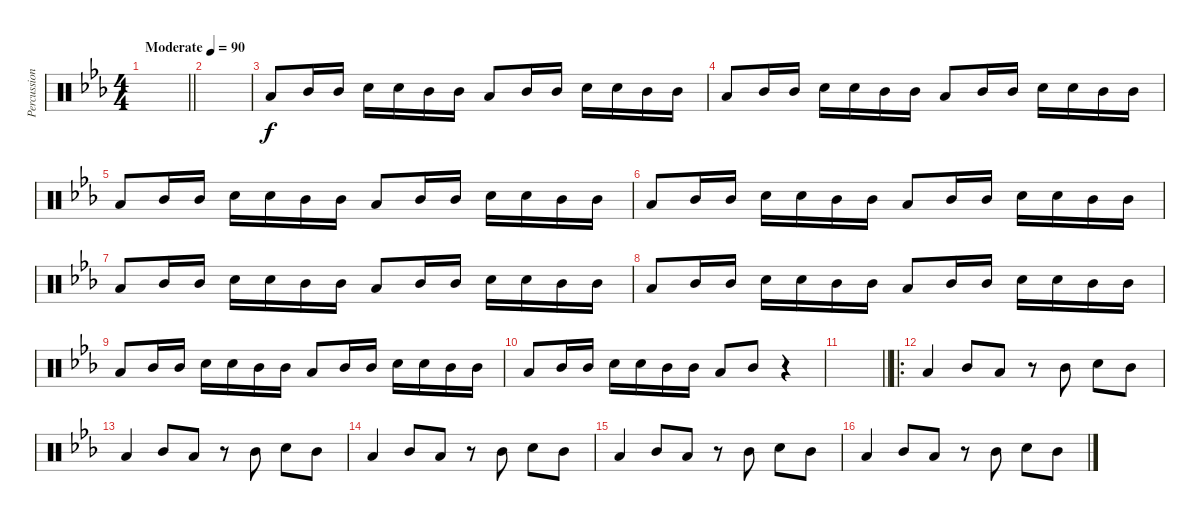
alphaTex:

\track ("Percussion" "Percussion") {instrument percussion}
\staff {score}
\articulation defaults
\ts (4 4)
\tempo (90 "Moderate")
\clef neutral
\barLineRight lightlight
\ks eb
|
|
"Low Floor Tom (hit)".8 "Mid Tom (hit)".16 "Mid Tom (hit)".16 "Snare (hit) 2".16 "Snare (hit) 2".16 "Mid Tom (hit)".16 "Mid Tom (hit)".16 "Low Floor Tom (hit)".8 "Mid Tom (hit)".16 "Mid Tom (hit)".16 "Snare (hit) 2".16 "Snare (hit) 2".16 "Mid Tom (hit)".16 "Mid Tom (hit)".16 |
"Low Floor Tom (hit)".8 "Mid Tom (hit)".16 "Mid Tom (hit)".16 "Snare (hit) 2".16 "Snare (hit) 2".16 "Mid Tom (hit)".16 "Mid Tom (hit)".16 "Low Floor Tom (hit)".8 "Mid Tom (hit)".16 "Mid Tom (hit)".16 "Snare (hit) 2".16 "Snare (hit) 2".16 "Mid Tom (hit)".16 "Mid Tom (hit)".16 |
"Low Floor Tom (hit)".8 "Mid Tom (hit)".16 "Mid Tom (hit)".16 "Snare (hit) 2".16 "Snare (hit) 2".16 "Mid Tom (hit)".16 "Mid Tom (hit)".16 "Low Floor Tom (hit)".8 "Mid Tom (hit)".16 "Mid Tom (hit)".16 "Snare (hit) 2".16 "Snare (hit) 2".16 "Mid Tom (hit)".16 "Mid Tom (hit)".16 |
"Low Floor Tom (hit)".8 "Mid Tom (hit)".16 "Mid Tom (hit)".16 "Snare (hit) 2".16 "Snare (hit) 2".16 "Mid Tom (hit)".16 "Mid Tom (hit)".16 "Low Floor Tom (hit)".8 "Mid Tom (hit)".16 "Mid Tom (hit)".16 "Snare (hit) 2".16 "Snare (hit) 2".16 "Mid Tom (hit)".16 "Mid Tom (hit)".16 |
"Low Floor Tom (hit)".8 "Mid Tom (hit)".16 "Mid Tom (hit)".16 "Snare (hit) 2".16 "Snare (hit) 2".16 "Mid Tom (hit)".16 "Mid Tom (hit)".16 "Low Floor Tom (hit)".8 "Mid Tom (hit)".16 "Mid Tom (hit)".16 "Snare (hit) 2".16 "Snare (hit) 2".16 "Mid Tom (hit)".16 "Mid Tom (hit)".16 |
"Low Floor Tom (hit)".8 "Mid Tom (hit)".16 "Mid Tom (hit)".16 "Snare (hit) 2".16 "Snare (hit) 2".16 "Mid Tom (hit)".16 "Mid Tom (hit)".16 "Low Floor Tom (hit)".8 "Mid Tom (hit)".16 "Mid Tom (hit)".16 "Snare (hit) 2".16 "Snare (hit) 2".16 "Mid Tom (hit)".16 "Mid Tom (hit)".16 |
"Low Floor Tom (hit)".8 "Mid Tom (hit)".16 "Mid Tom (hit)".16 "Snare (hit) 2".16 "Snare (hit) 2".16 "Mid Tom (hit)".16 "Mid Tom (hit)".16 "Low Floor Tom (hit)".8 "Mid Tom (hit)".16 "Mid Tom (hit)".16 "Snare (hit) 2".16 "Snare (hit) 2".16 "Mid Tom (hit)".16 "Mid Tom (hit)".16 |
"Low Floor Tom (hit)".8 "Mid Tom (hit)".16 "Mid Tom (hit)".16 "Snare (hit) 2".16 "Snare (hit) 2".16 "Mid Tom (hit)".16 "Mid Tom (hit)".16 "Low Floor Tom (hit)".8 "Mid Tom (hit)".8 r.4 |
\barLineRight lightlight
|
\ro "Low Floor Tom (hit)".4 "Mid Tom (hit)".8 "Low Floor Tom (hit)".8
r.8 "Mid Tom (hit)".8 "Snare (hit) 2".8 "Mid Tom (hit)".8 |
"Low Floor Tom (hit)".4 "Mid Tom (hit)".8 "Low Floor Tom (hit)".8 r.8 "Mid Tom (hit)".8 "Snare (hit) 2".8 "Mid Tom (hit)".8 |
"Low Floor Tom (hit)".4 "Mid Tom (hit)".8 "Low Floor Tom (hit)".8 r.8 "Mid Tom (hit)".8 "Snare (hit) 2".8 "Mid Tom (hit)".8 |
"Low Floor Tom (hit)".4 "Mid Tom (hit)".8 "Low Floor Tom (hit)".8 r.8 "Mid Tom (hit)".8 "Snare (hit) 2".8 "Mid Tom (hit)".8 |
"Low Floor Tom (hit)".4 "Mid Tom (hit)".8 "Low Floor Tom (hit)".8 r.8 "Mid Tom (hit)".8 "Snare (hit) 2".8 "Mid Tom (hit)".8
